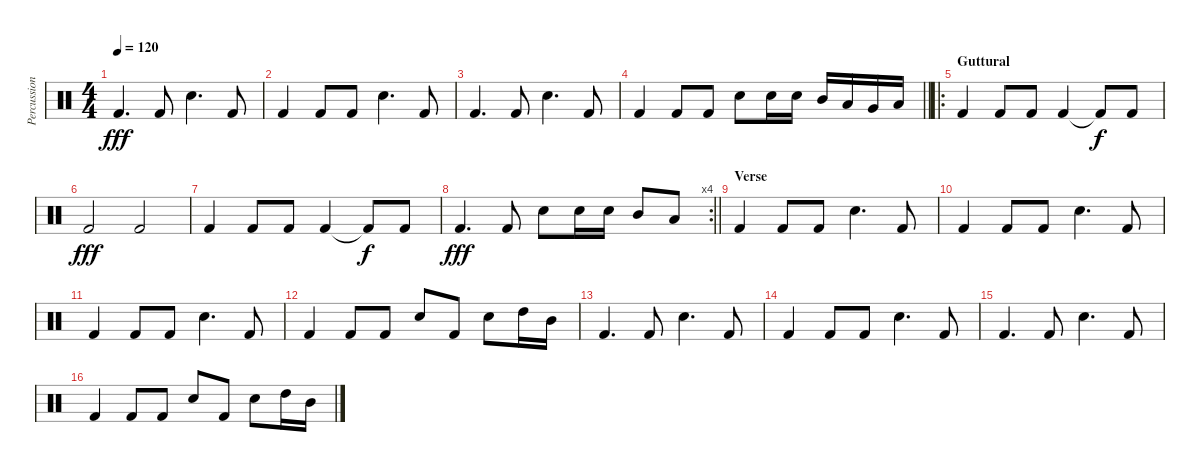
\track ("Percussion 1" "Percussion") {instrument percussion}
\staff {score}
\articulation defaults
\ts (4 4)
\tempo 120
\clef neutral
\ks c "Kick (hit) 2".4{d dy fff} "Kick (hit) 2".8 "Electric Snare (hit)".4{d} "Kick (hit) 2".8
|
"Kick (hit) 2".4 "Kick (hit) 2".8 "Kick (hit) 2".8 "Electric Snare (hit)".4{d} "Kick (hit) 2".8 |
"Kick (hit) 2".4{d} "Kick (hit) 2".8 "Electric Snare (hit)".4{d} "Kick (hit) 2".8 |
\barLineRight lightlight "Kick (hit) 2".4 "Kick (hit) 2".8 "Kick (hit) 2".8 "Electric Snare (hit)".8 "Electric Snare (hit)".16 "Electric Snare (hit)".16 "Mid Tom (hit)".16 "Low Tom (hit)".16 "Very Low Tom (hit)".16 "Low Floor Tom (hit)".16
|
\ro
\section ("" "Guttural")
"Kick (hit) 2".4 "Kick (hit) 2".8 "Kick (hit) 2".8 "Kick (hit) 2".4 "Kick (hit) 2"{t}.8{dy f} "Kick (hit) 2".8 |
"Kick (hit) 2".2{dy fff} "Kick (hit) 2".2 |
"Kick (hit) 2".4 "Kick (hit) 2".8 "Kick (hit) 2".8 "Kick (hit) 2".4 "Kick (hit) 2"{t}.8{dy f} "Kick (hit) 2".8 |
\rc 4
\barLineRight lightlight "Kick (hit) 2".4{d dy fff} "Kick (hit) 2".8 "Electric Snare (hit)".8 "Electric Snare (hit)".16 "Electric Snare (hit)".16 "Mid Tom (hit)".8 "Low Tom (hit)".8
|
\section ("" "Verse")
"Kick (hit) 2".4 "Kick (hit) 2".8 "Kick (hit) 2".8 "Electric Snare (hit)".4{d} "Kick (hit) 2".8 |
"Kick (hit) 2".4 "Kick (hit) 2".8 "Kick (hit) 2".8 "Electric Snare (hit)".4{d} "Kick (hit) 2".8 |
"Kick (hit) 2".4 "Kick (hit) 2".8 "Kick (hit) 2".8 "Electric Snare (hit)".4{d} "Kick (hit) 2".8 |
"Kick (hit) 2".4 "Kick (hit) 2".8 "Kick (hit) 2".8 "Electric Snare (hit)".8 "Kick (hit) 2".8 "Electric Snare (hit)".8 "High Tom (hit)".16 "Mid Tom (hit)".16 |
"Kick (hit) 2".4{d} "Kick (hit) 2".8 "Electric Snare (hit)".4{d} "Kick (hit) 2".8 |
"Kick (hit) 2".4 "Kick (hit) 2".8 "Kick (hit) 2".8 "Electric Snare (hit)".4{d} "Kick (hit) 2".8 |
"Kick (hit) 2".4{d} "Kick (hit) 2".8 "Electric Snare (hit)".4{d} "Kick (hit) 2".8 |
"Kick (hit) 2".4 "Kick (hit) 2".8 "Kick (hit) 2".8 "Electric Snare (hit)".8 "Kick (hit) 2".8 "Electric Snare (hit)".8 "High Tom (hit)".16 "Mid Tom (hit)".16
